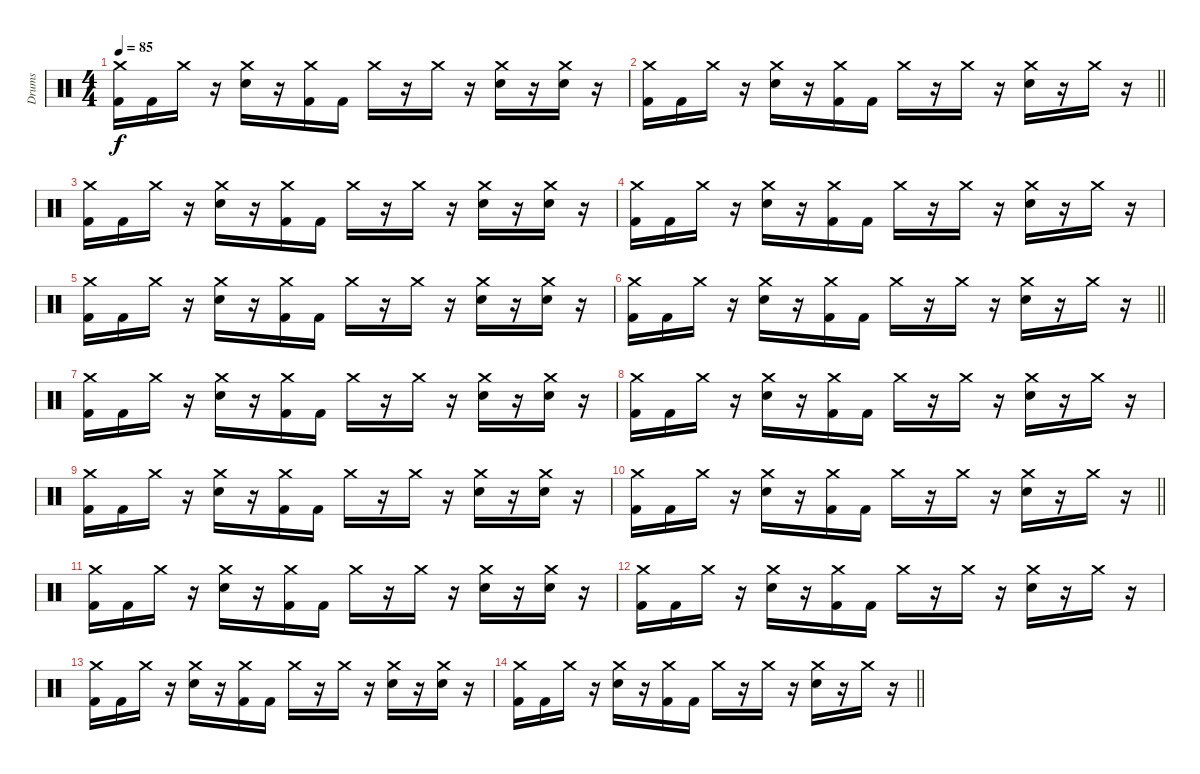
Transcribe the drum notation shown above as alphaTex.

\track ("Drums" "Drums") {instrument percussion}
\staff {score}
\articulation defaults
\ts (4 4)
\tempo 85
\clef neutral
\ks c
("Crash medium (hit)" "Kick (hit) 2").16{dy f} "Kick (hit) 2".16 "Crash medium (hit)".16 r.16 ("Crash medium (hit)" "Electric Snare (hit)").16 r.16 ("Crash medium (hit)" "Kick (hit) 2").16 "Kick (hit) 2".16 "Crash medium (hit)".16 r.16 "Crash medium (hit)".16 r.16 ("Crash medium (hit)" "Electric Snare (hit)").16 r.16 ("Crash medium (hit)" "Electric Snare (hit)").16 r.16 |
\barLineRight lightlight
("Crash medium (hit)" "Kick (hit) 2").16 "Kick (hit) 2".16 "Crash medium (hit)".16 r.16 ("Crash medium (hit)" "Electric Snare (hit)").16 r.16 ("Crash medium (hit)" "Kick (hit) 2").16 "Kick (hit) 2".16 "Crash medium (hit)".16 r.16 "Crash medium (hit)".16 r.16 ("Crash medium (hit)" "Electric Snare (hit)").16 r.16 "Crash medium (hit)".16 r.16 |
("Crash medium (hit)" "Kick (hit) 2").16 "Kick (hit) 2".16 "Crash medium (hit)".16 r.16 ("Crash medium (hit)" "Electric Snare (hit)").16 r.16 ("Crash medium (hit)" "Kick (hit) 2").16 "Kick (hit) 2".16 "Crash medium (hit)".16 r.16 "Crash medium (hit)".16 r.16 ("Crash medium (hit)" "Electric Snare (hit)").16 r.16 ("Crash medium (hit)" "Electric Snare (hit)").16 r.16 |
("Crash medium (hit)" "Kick (hit) 2").16 "Kick (hit) 2".16 "Crash medium (hit)".16 r.16 ("Crash medium (hit)" "Electric Snare (hit)").16 r.16 ("Crash medium (hit)" "Kick (hit) 2").16 "Kick (hit) 2".16 "Crash medium (hit)".16 r.16 "Crash medium (hit)".16 r.16 ("Crash medium (hit)" "Electric Snare (hit)").16 r.16 "Crash medium (hit)".16 r.16 |
("Crash medium (hit)" "Kick (hit) 2").16 "Kick (hit) 2".16 "Crash medium (hit)".16 r.16 ("Crash medium (hit)" "Electric Snare (hit)").16 r.16 ("Crash medium (hit)" "Kick (hit) 2").16 "Kick (hit) 2".16 "Crash medium (hit)".16 r.16 "Crash medium (hit)".16 r.16 ("Crash medium (hit)" "Electric Snare (hit)").16 r.16 ("Crash medium (hit)" "Electric Snare (hit)").16 r.16 |
\barLineRight lightlight
("Crash medium (hit)" "Kick (hit) 2").16 "Kick (hit) 2".16 "Crash medium (hit)".16 r.16 ("Crash medium (hit)" "Electric Snare (hit)").16 r.16 ("Crash medium (hit)" "Kick (hit) 2").16 "Kick (hit) 2".16 "Crash medium (hit)".16 r.16 "Crash medium (hit)".16 r.16 ("Crash medium (hit)" "Electric Snare (hit)").16 r.16 "Crash medium (hit)".16 r.16 |
("Crash medium (hit)" "Kick (hit) 2").16 "Kick (hit) 2".16 "Crash medium (hit)".16 r.16 ("Crash medium (hit)" "Electric Snare (hit)").16 r.16 ("Crash medium (hit)" "Kick (hit) 2").16 "Kick (hit) 2".16 "Crash medium (hit)".16 r.16 "Crash medium (hit)".16 r.16 ("Crash medium (hit)" "Electric Snare (hit)").16 r.16 ("Crash medium (hit)" "Electric Snare (hit)").16 r.16 |
("Crash medium (hit)" "Kick (hit) 2").16 "Kick (hit) 2".16 "Crash medium (hit)".16 r.16 ("Crash medium (hit)" "Electric Snare (hit)").16 r.16 ("Crash medium (hit)" "Kick (hit) 2").16 "Kick (hit) 2".16 "Crash medium (hit)".16 r.16 "Crash medium (hit)".16 r.16 ("Crash medium (hit)" "Electric Snare (hit)").16 r.16 "Crash medium (hit)".16 r.16 |
("Crash medium (hit)" "Kick (hit) 2").16 "Kick (hit) 2".16 "Crash medium (hit)".16 r.16 ("Crash medium (hit)" "Electric Snare (hit)").16 r.16 ("Crash medium (hit)" "Kick (hit) 2").16 "Kick (hit) 2".16 "Crash medium (hit)".16 r.16 "Crash medium (hit)".16 r.16 ("Crash medium (hit)" "Electric Snare (hit)").16 r.16 ("Crash medium (hit)" "Electric Snare (hit)").16 r.16 |
\barLineRight lightlight
("Crash medium (hit)" "Kick (hit) 2").16 "Kick (hit) 2".16 "Crash medium (hit)".16 r.16 ("Crash medium (hit)" "Electric Snare (hit)").16 r.16 ("Crash medium (hit)" "Kick (hit) 2").16 "Kick (hit) 2".16 "Crash medium (hit)".16 r.16 "Crash medium (hit)".16 r.16 ("Crash medium (hit)" "Electric Snare (hit)").16 r.16 "Crash medium (hit)".16 r.16 |
("Crash medium (hit)" "Kick (hit) 2").16 "Kick (hit) 2".16 "Crash medium (hit)".16 r.16 ("Crash medium (hit)" "Electric Snare (hit)").16 r.16 ("Crash medium (hit)" "Kick (hit) 2").16 "Kick (hit) 2".16 "Crash medium (hit)".16 r.16 "Crash medium (hit)".16 r.16 ("Crash medium (hit)" "Electric Snare (hit)").16 r.16 ("Crash medium (hit)" "Electric Snare (hit)").16 r.16 |
("Crash medium (hit)" "Kick (hit) 2").16 "Kick (hit) 2".16 "Crash medium (hit)".16 r.16 ("Crash medium (hit)" "Electric Snare (hit)").16 r.16 ("Crash medium (hit)" "Kick (hit) 2").16 "Kick (hit) 2".16 "Crash medium (hit)".16 r.16 "Crash medium (hit)".16 r.16 ("Crash medium (hit)" "Electric Snare (hit)").16 r.16 "Crash medium (hit)".16 r.16 |
("Crash medium (hit)" "Kick (hit) 2").16 "Kick (hit) 2".16 "Crash medium (hit)".16 r.16 ("Crash medium (hit)" "Electric Snare (hit)").16 r.16 ("Crash medium (hit)" "Kick (hit) 2").16 "Kick (hit) 2".16 "Crash medium (hit)".16 r.16 "Crash medium (hit)".16 r.16 ("Crash medium (hit)" "Electric Snare (hit)").16 r.16 ("Crash medium (hit)" "Electric Snare (hit)").16 r.16 |
\barLineRight lightlight
("Crash medium (hit)" "Kick (hit) 2").16 "Kick (hit) 2".16 "Crash medium (hit)".16 r.16 ("Crash medium (hit)" "Electric Snare (hit)").16 r.16 ("Crash medium (hit)" "Kick (hit) 2").16 "Kick (hit) 2".16 "Crash medium (hit)".16 r.16 "Crash medium (hit)".16 r.16 ("Crash medium (hit)" "Electric Snare (hit)").16 r.16 "Crash medium (hit)".16 r.16
